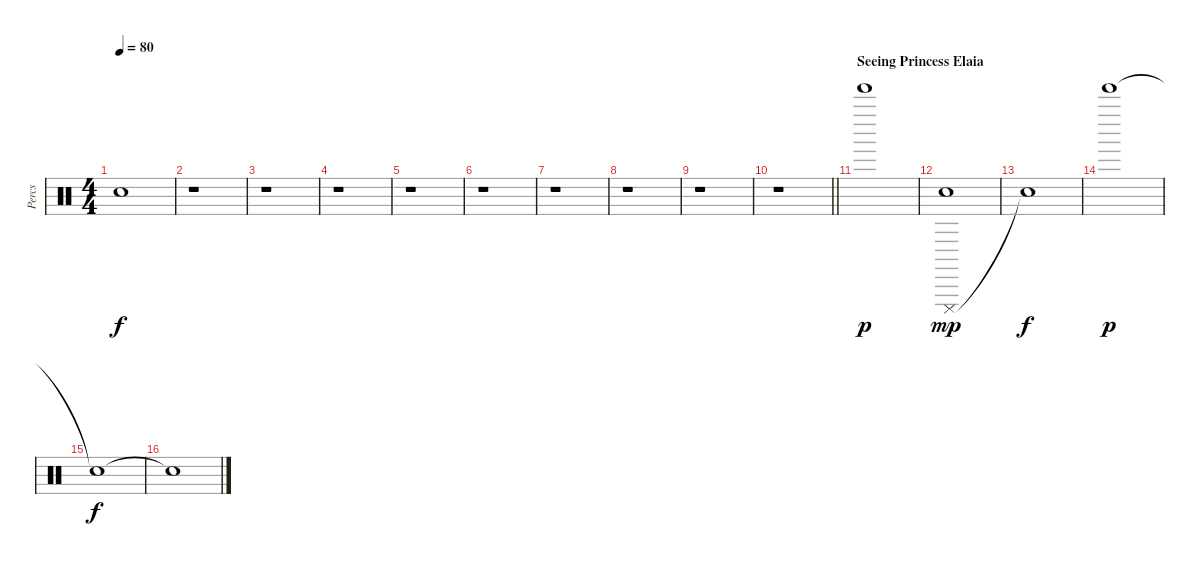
\track ("Percs" "Percs") {instrument percussion}
\staff {score}
\articulation defaults
\ts (4 4)
\tempo 80
\clef neutral
\ks c "Snare (hit)"{t}.1{dy f}
|
r.1 |
r.1 |
r.1 |
r.1 |
r.1 |
r.1 |
r.1 |
r.1 |
\barLineRight lightlight
r.1 |
\section ("" "Seeing Princess Elaia")
"Tinkle Bell (hit)".1{dy p} |
("Cuica (mute)" "Snare (hit)").1{dy mp} |
"Snare (hit)"{t}.1{dy f} |
"Tinkle Bell (hit)".1{dy p} |
"Snare (hit)"{t}.1{dy f} |
"Snare (hit)"{t}.1
